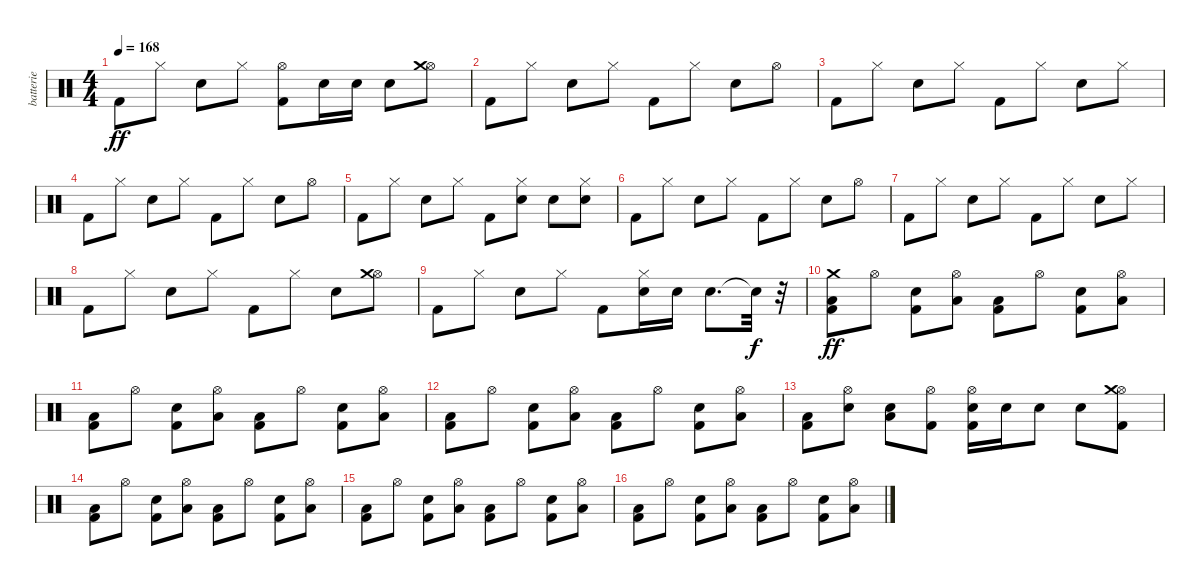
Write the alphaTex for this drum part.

\track ("batterie" "batterie") {instrument percussion}
\staff {score}
\articulation defaults
\ts (4 4)
\tempo 168
\clef neutral
\ks c "Kick (hit) 2".8{dy ff} "Hi-Hat (closed)".8 "Electric Snare (hit)".8 "Hi-Hat (closed)".8
("Kick (hit) 2" "Hi-Hat (open)").8 "Electric Snare (hit)".16 "Electric Snare (hit)".16 "Electric Snare (hit)".8 ("Hi-Hat (open)" "Crash medium (hit)").8 |
"Kick (hit) 2".8 "Hi-Hat (closed)".8 "Electric Snare (hit)".8 "Hi-Hat (closed)".8 "Kick (hit) 2".8 "Hi-Hat (closed)".8 "Electric Snare (hit)".8 "Hi-Hat (open)".8 |
"Kick (hit) 2".8 "Hi-Hat (closed)".8 "Electric Snare (hit)".8 "Hi-Hat (closed)".8 "Kick (hit) 2".8 "Hi-Hat (closed)".8 "Electric Snare (hit)".8 "Hi-Hat (closed)".8 |
"Kick (hit) 2".8 "Hi-Hat (closed)".8 "Electric Snare (hit)".8 "Hi-Hat (closed)".8 "Kick (hit) 2".8 "Hi-Hat (closed)".8 "Electric Snare (hit)".8 "Hi-Hat (open)".8 |
"Kick (hit) 2".8 "Hi-Hat (closed)".8 "Electric Snare (hit)".8 "Hi-Hat (closed)".8 "Kick (hit) 2".8 ("Electric Snare (hit)" "Hi-Hat (closed)").8 "Electric Snare (hit)".8 ("Electric Snare (hit)" "Hi-Hat (closed)").8 |
"Kick (hit) 2".8 "Hi-Hat (closed)".8 "Electric Snare (hit)".8 "Hi-Hat (closed)".8 "Kick (hit) 2".8 "Hi-Hat (closed)".8 "Electric Snare (hit)".8 "Hi-Hat (open)".8 |
"Kick (hit) 2".8 "Hi-Hat (closed)".8 "Electric Snare (hit)".8 "Hi-Hat (closed)".8 "Kick (hit) 2".8 "Hi-Hat (closed)".8 "Electric Snare (hit)".8 "Hi-Hat (closed)".8 |
"Kick (hit) 2".8 "Hi-Hat (closed)".8 "Electric Snare (hit)".8 "Hi-Hat (closed)".8 "Kick (hit) 2".8 "Hi-Hat (closed)".8 "Electric Snare (hit)".8 ("Hi-Hat (open)" "Crash medium (hit)").8 |
"Kick (hit) 2".8 "Hi-Hat (closed)".8 "Electric Snare (hit)".8 "Hi-Hat (closed)".8 "Kick (hit) 2".8 ("Electric Snare (hit)" "Hi-Hat (closed)").16 "Electric Snare (hit)".16 "Electric Snare (hit)".8{d} "Snare (hit)"{t}.32{dy f} r.32 |
("Kick (hit) 2" "Low Floor Tom (hit)" "Crash medium (hit)").8{dy ff} "Hi-Hat (open)".8 ("Kick (hit) 2" "Electric Snare (hit)").8 ("Low Floor Tom (hit)" "Hi-Hat (open)").8 ("Kick (hit) 2" "Low Floor Tom (hit)").8 "Hi-Hat (open)".8 ("Kick (hit) 2" "Electric Snare (hit)").8 ("Low Floor Tom (hit)" "Hi-Hat (open)").8 |
("Kick (hit) 2" "Low Floor Tom (hit)").8 "Hi-Hat (open)".8 ("Kick (hit) 2" "Electric Snare (hit)").8 ("Low Floor Tom (hit)" "Hi-Hat (open)").8 ("Kick (hit) 2" "Low Floor Tom (hit)").8 "Hi-Hat (open)".8 ("Kick (hit) 2" "Electric Snare (hit)").8 ("Low Floor Tom (hit)" "Hi-Hat (open)").8 |
("Kick (hit) 2" "Low Floor Tom (hit)").8 "Hi-Hat (open)".8 ("Kick (hit) 2" "Electric Snare (hit)").8 ("Low Floor Tom (hit)" "Hi-Hat (open)").8 ("Kick (hit) 2" "Low Floor Tom (hit)").8 "Hi-Hat (open)".8 ("Kick (hit) 2" "Electric Snare (hit)").8 ("Low Floor Tom (hit)" "Hi-Hat (open)").8 |
("Kick (hit) 2" "Low Floor Tom (hit)").8 ("Electric Snare (hit)" "Hi-Hat (open)").8 ("Electric Snare (hit)" "Low Floor Tom (hit)").8 ("Kick (hit) 2" "Hi-Hat (open)").8 ("Kick (hit) 2" "Electric Snare (hit)" "Hi-Hat (open)").16 "Electric Snare (hit)".16 "Electric Snare (hit)".8 "Electric Snare (hit)".8 ("Kick (hit) 2" "Hi-Hat (open)" "Crash medium (hit)").8 |
("Kick (hit) 2" "Low Floor Tom (hit)").8 "Hi-Hat (open)".8 ("Kick (hit) 2" "Electric Snare (hit)").8 ("Low Floor Tom (hit)" "Hi-Hat (open)").8 ("Kick (hit) 2" "Low Floor Tom (hit)").8 "Hi-Hat (open)".8 ("Kick (hit) 2" "Electric Snare (hit)").8 ("Low Floor Tom (hit)" "Hi-Hat (open)").8 |
("Kick (hit) 2" "Low Floor Tom (hit)").8 "Hi-Hat (open)".8 ("Kick (hit) 2" "Electric Snare (hit)").8 ("Low Floor Tom (hit)" "Hi-Hat (open)").8 ("Kick (hit) 2" "Low Floor Tom (hit)").8 "Hi-Hat (open)".8 ("Kick (hit) 2" "Electric Snare (hit)").8 ("Low Floor Tom (hit)" "Hi-Hat (open)").8 |
("Kick (hit) 2" "Low Floor Tom (hit)").8 "Hi-Hat (open)".8 ("Kick (hit) 2" "Electric Snare (hit)").8 ("Low Floor Tom (hit)" "Hi-Hat (open)").8 ("Kick (hit) 2" "Low Floor Tom (hit)").8 "Hi-Hat (open)".8 ("Kick (hit) 2" "Electric Snare (hit)").8 ("Low Floor Tom (hit)" "Hi-Hat (open)").8
